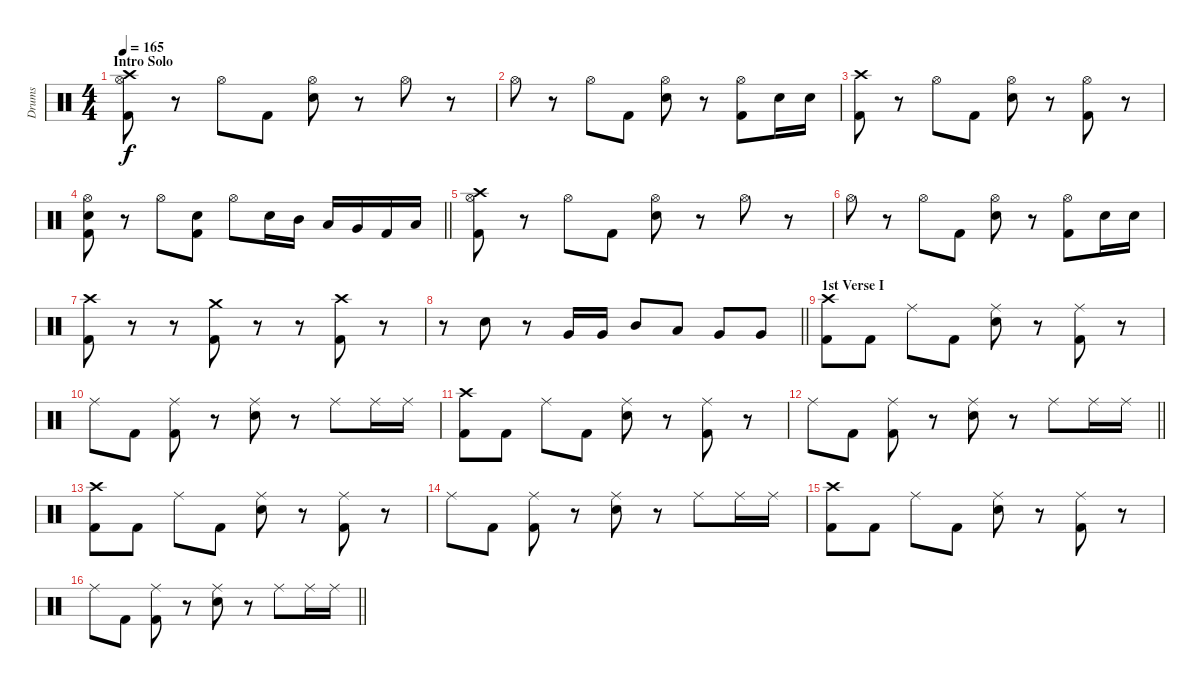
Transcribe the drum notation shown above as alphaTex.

\track ("Drums" "Drums") {instrument percussion}
\staff {score}
\articulation defaults
\ts (4 4)
\section ("" "Intro Solo")
\tempo 165
\clef neutral
\ks c
("Crash high (hit)" "Hi-Hat (open)" "Kick (hit) 2").8{dy f} r.8 "Hi-Hat (open)".8 "Kick (hit) 2".8 ("Hi-Hat (open)" "Electric Snare (hit)").8 r.8 "Hi-Hat (open)".8 r.8 |
"Hi-Hat (open)".8 r.8 "Hi-Hat (open)".8 "Kick (hit) 2".8 ("Hi-Hat (open)" "Electric Snare (hit)").8 r.8 ("Hi-Hat (open)" "Kick (hit) 2").8 "Electric Snare (hit)".16 "Electric Snare (hit)".16 |
("Crash high (hit)" "Kick (hit) 2").8 r.8 "Hi-Hat (open)".8 "Kick (hit) 2".8 ("Hi-Hat (open)" "Electric Snare (hit)").8 r.8 ("Hi-Hat (open)" "Kick (hit) 2").8 r.8 |
\barLineRight lightlight
("Hi-Hat (open)" "Electric Snare (hit)" "Kick (hit) 2").8 r.8 "Hi-Hat (open)".8 ("Electric Snare (hit)" "Kick (hit) 2").8 "Hi-Hat (open)".8 "Electric Snare (hit)".16 "Mid Tom (hit)".16 "Low Tom (hit)".16 "Very Low Tom (hit)".16 "Kick (hit) 2".16 "Low Floor Tom (hit)".16 |
("Crash high (hit)" "Hi-Hat (open)" "Kick (hit) 2").8 r.8 "Hi-Hat (open)".8 "Kick (hit) 2".8 ("Hi-Hat (open)" "Electric Snare (hit)").8 r.8 "Hi-Hat (open)".8 r.8 |
"Hi-Hat (open)".8 r.8 "Hi-Hat (open)".8 "Kick (hit) 2".8 ("Hi-Hat (open)" "Electric Snare (hit)").8 r.8 ("Hi-Hat (open)" "Kick (hit) 2").8 "Electric Snare (hit)".16 "Electric Snare (hit)".16 |
("Crash high (hit)" "Kick (hit) 2").8 r.8 r.8 ("Crash medium (hit)" "Kick (hit) 2").8 r.8 r.8 ("Crash high (hit)" "Kick (hit) 2").8 r.8 |
\barLineRight lightlight
r.8 "Electric Snare (hit)".8 r.8 "Very Low Tom (hit)".16 "Very Low Tom (hit)".16 "Mid Tom (hit)".8 "Low Tom (hit)".8 "Very Low Tom (hit)".8 "Very Low Tom (hit)".8 |
\section ("" "1st Verse I")
("Crash high (hit)" "Kick (hit) 2").8 "Kick (hit) 2".8 "Ride (middle)".8 "Kick (hit) 2".8 ("Ride (middle)" "Electric Snare (hit)").8 r.8 ("Ride (middle)" "Kick (hit) 2").8 r.8 |
"Ride (middle)".8 "Kick (hit) 2".8 ("Ride (middle)" "Kick (hit) 2").8 r.8 ("Ride (middle)" "Electric Snare (hit)").8 r.8 "Ride (middle)".8 "Ride (middle)".16 "Ride (middle)".16 |
("Crash high (hit)" "Kick (hit) 2").8 "Kick (hit) 2".8 "Ride (middle)".8 "Kick (hit) 2".8 ("Ride (middle)" "Electric Snare (hit)").8 r.8 ("Ride (middle)" "Kick (hit) 2").8 r.8 |
\barLineRight lightlight "Ride (middle)".8 "Kick (hit) 2".8
("Ride (middle)" "Kick (hit) 2").8 r.8 ("Ride (middle)" "Electric Snare (hit)").8 r.8 "Ride (middle)".8 "Ride (middle)".16 "Ride (middle)".16 |
("Crash high (hit)" "Kick (hit) 2").8 "Kick (hit) 2".8 "Ride (middle)".8 "Kick (hit) 2".8 ("Ride (middle)" "Electric Snare (hit)").8 r.8 ("Ride (middle)" "Kick (hit) 2").8 r.8 |
"Ride (middle)".8 "Kick (hit) 2".8 ("Ride (middle)" "Kick (hit) 2").8 r.8 ("Ride (middle)" "Electric Snare (hit)").8 r.8 "Ride (middle)".8 "Ride (middle)".16 "Ride (middle)".16 |
("Crash high (hit)" "Kick (hit) 2").8 "Kick (hit) 2".8 "Ride (middle)".8 "Kick (hit) 2".8 ("Ride (middle)" "Electric Snare (hit)").8 r.8 ("Ride (middle)" "Kick (hit) 2").8 r.8 |
\barLineRight lightlight "Ride (middle)".8 "Kick (hit) 2".8
("Ride (middle)" "Kick (hit) 2").8 r.8 ("Ride (middle)" "Electric Snare (hit)").8 r.8 "Ride (middle)".8 "Ride (middle)".16 "Ride (middle)".16
